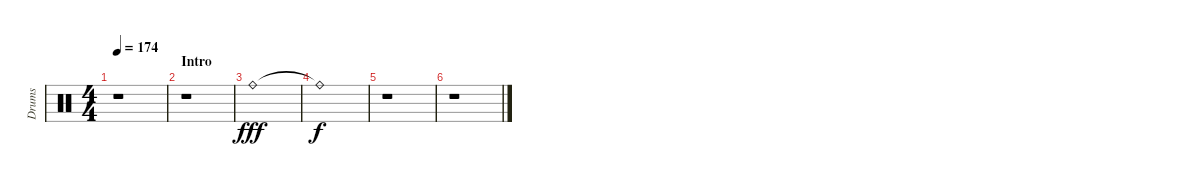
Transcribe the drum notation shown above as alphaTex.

\track ("Drums" "Drums") {instrument percussion}
\staff {score}
\articulation defaults
\ts (4 4)
\tempo 174
\clef neutral
\ks c
r.1{dy fff} |
\section ("" "Intro")
r.1 |
"Ride (bell)".1 |
"Ride (bell)"{t}.1{dy f} |
r.1 |
r.1
